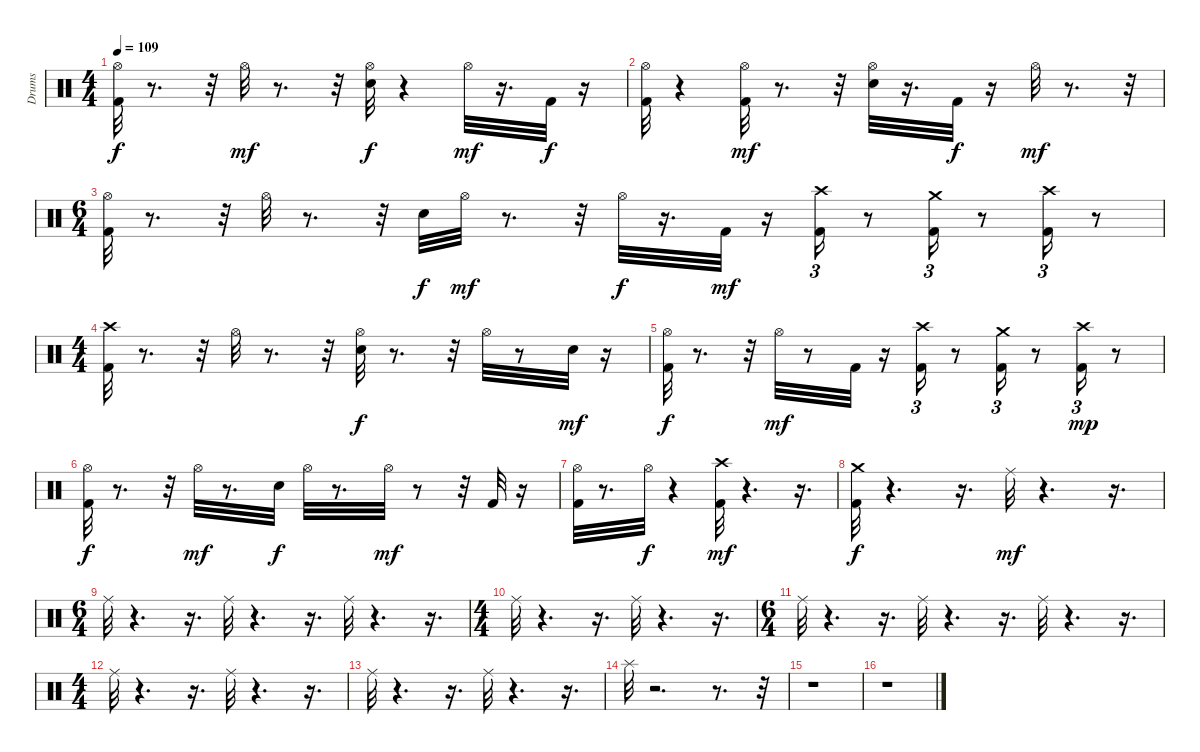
\track ("Drums" "Drums") {solo instrument percussion}
\staff {score}
\articulation defaults
\ts (4 4)
\tempo 109
\clef neutral
\ks c
("Kick (hit) 2" "Hi-Hat (open)").32{dy f} r.8{d} r.32 "Hi-Hat (open)".32{dy mf} r.8{d} r.32 ("Hi-Hat (open)" "Electric Snare (hit)").32{dy f} r.4 "Hi-Hat (open)".32{dy mf} r.16{d} "Kick (hit) 2".32{dy f} r.16 |
("Kick (hit) 2" "Hi-Hat (open)").32 r.4 ("Hi-Hat (open)" "Kick (hit) 2").32{dy mf} r.8{d} r.32 ("Electric Snare (hit)" "Hi-Hat (open)").32 r.16{d} "Kick (hit) 2".32{dy f} r.16 "Hi-Hat (open)".32{dy mf} r.8{d} r.32 |
\ts (6 4)
("Hi-Hat (open)" "Kick (hit) 2").32 r.8{d} r.32 "Hi-Hat (open)".32 r.8{d} r.32 "Electric Snare (hit)".32{dy f} "Hi-Hat (open)".32{dy mf} r.8{d} r.32 "Hi-Hat (open)".32{dy f} r.16{d} "Kick (hit) 2".32{dy mf} r.16 ("Crash high (hit)" "Kick (hit) 2").16{tu (3 2)} r.8 ("Kick (hit) 2" "Crash medium (hit)").16{tu (3 2)} r.8 ("Kick (hit) 2" "Crash high (hit)").16{tu (3 2)} r.8 |
\ts (4 4)
("Kick (hit) 2" "Crash high (hit)").32 r.8{d} r.32 "Hi-Hat (open)".32 r.8{d} r.32 ("Electric Snare (hit)" "Hi-Hat (open)").32{dy f} r.8{d} r.32 "Hi-Hat (open)".32 r.8 "Electric Snare (hit)".32{dy mf} r.16 |
("Kick (hit) 2" "Hi-Hat (open)").32{dy f} r.8{d} r.32 "Hi-Hat (open)".32{dy mf} r.8 "Kick (hit) 2".32 r.16 ("Kick (hit) 2" "Crash high (hit)").16{tu (3 2)} r.8 ("Kick (hit) 2" "Crash medium (hit)").16{tu (3 2)} r.8 ("Kick (hit) 2" "Crash high (hit)").16{tu (3 2) dy mp} r.8 |
("Kick (hit) 2" "Hi-Hat (open)").32{dy f} r.8{d} r.32 "Hi-Hat (open)".32{dy mf} r.8{d} "Electric Snare (hit)".32{dy f} "Hi-Hat (open)".32 r.8{d} "Hi-Hat (open)".32{dy mf} r.8 r.32 "Kick (hit) 2".32 r.16 |
("Kick (hit) 2" "Hi-Hat (open)").32 r.8{d} "Hi-Hat (open)".32{dy f} r.4 ("Kick (hit) 2" "Crash high (hit)").32{dy mf} r.4{d} r.16{d} |
("Kick (hit) 2" "Crash medium (hit)").32{dy f} r.4{d} r.16{d} "Ride (middle)".32{dy mf} r.4{d} r.16{d} |
\ts (6 4)
"Ride (middle)".32 r.4{d} r.16{d} "Ride (middle)".32 r.4{d} r.16{d} "Ride (middle)".32 r.4{d} r.16{d} |
\ts (4 4)
"Ride (middle)".32 r.4{d} r.16{d} "Ride (middle)".32 r.4{d} r.16{d} |
\ts (6 4)
"Ride (middle)".32 r.4{d} r.16{d} "Ride (middle)".32 r.4{d} r.16{d} "Ride (middle)".32 r.4{d} r.16{d} |
\ts (4 4)
"Ride (middle)".32 r.4{d} r.16{d} "Ride (middle)".32 r.4{d} r.16{d} |
"Ride (middle)".32 r.4{d} r.16{d} "Ride (middle)".32 r.4{d} r.16{d} |
"Splash (hit)".32 r.2{d} r.8{d} r.32 |
r.1 |
r.1
